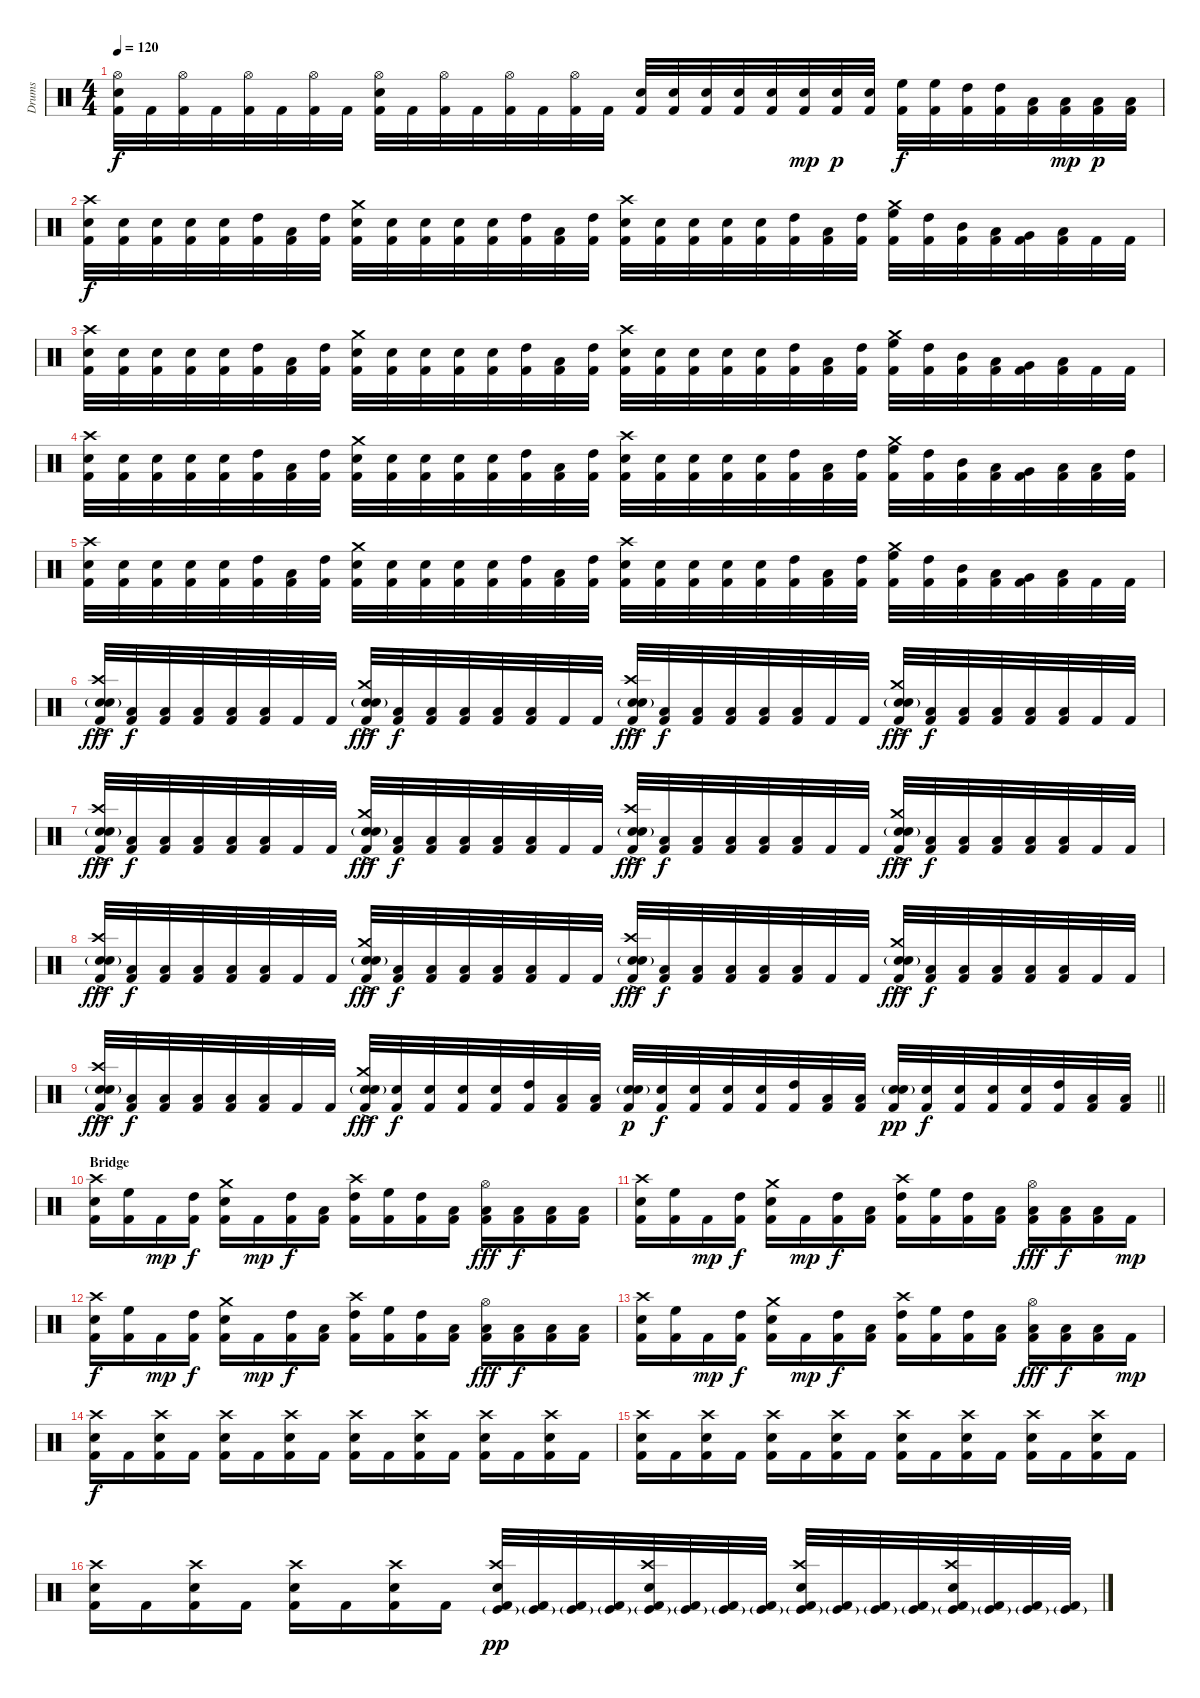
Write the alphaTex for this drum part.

\track ("Drums" "Drums") {instrument percussion}
\staff {score}
\articulation defaults
\ts (4 4)
\tempo 120
\clef neutral
\ks c
("Hi-Hat (open)" "Electric Snare (hit)" "Kick (hit) 2").32{dy f} "Kick (hit) 2".32 ("Hi-Hat (open)" "Kick (hit) 2").32 "Kick (hit) 2".32 ("Hi-Hat (open)" "Kick (hit) 2").32 "Kick (hit) 2".32 ("Hi-Hat (open)" "Kick (hit) 2").32 "Kick (hit) 2".32 ("Hi-Hat (open)" "Electric Snare (hit)" "Kick (hit) 2").32 "Kick (hit) 2".32 ("Hi-Hat (open)" "Kick (hit) 2").32 "Kick (hit) 2".32 ("Hi-Hat (open)" "Kick (hit) 2").32 "Kick (hit) 2".32 ("Hi-Hat (open)" "Kick (hit) 2").32 "Kick (hit) 2".32 ("Electric Snare (hit)" "Kick (hit) 2").32 ("Electric Snare (hit)" "Kick (hit) 2").32 ("Electric Snare (hit)" "Kick (hit) 2").32 ("Electric Snare (hit)" "Kick (hit) 2").32 ("Electric Snare (hit)" "Kick (hit) 2").32 ("Electric Snare (hit)" "Kick (hit) 2").32{dy mp} ("Electric Snare (hit)" "Kick (hit) 2").32{dy p} ("Electric Snare (hit)" "Kick (hit) 2").32 ("High Floor Tom (hit)" "Kick (hit) 2").32{dy f} ("High Floor Tom (hit)" "Kick (hit) 2").32 ("High Tom (hit)" "Kick (hit) 2").32 ("High Tom (hit)" "Kick (hit) 2").32 ("Low Tom (hit)" "Kick (hit) 2").32 ("Low Tom (hit)" "Kick (hit) 2").32{dy mp} ("Low Floor Tom (hit)" "Kick (hit) 2").32{dy p} ("Low Floor Tom (hit)" "Kick (hit) 2").32 |
("Crash high (hit)" "Electric Snare (hit)" "Kick (hit) 2").32{dy f} ("Electric Snare (hit)" "Kick (hit) 2").32 ("Electric Snare (hit)" "Kick (hit) 2").32 ("Electric Snare (hit)" "Kick (hit) 2").32 ("Electric Snare (hit)" "Kick (hit) 2").32 ("High Tom (hit)" "Kick (hit) 2").32 ("Low Tom (hit)" "Kick (hit) 2").32 ("High Tom (hit)" "Kick (hit) 2").32 ("Crash medium (hit)" "Electric Snare (hit)" "Kick (hit) 2").32 ("Electric Snare (hit)" "Kick (hit) 2").32 ("Electric Snare (hit)" "Kick (hit) 2").32 ("Electric Snare (hit)" "Kick (hit) 2").32 ("Electric Snare (hit)" "Kick (hit) 2").32 ("High Tom (hit)" "Kick (hit) 2").32 ("Low Tom (hit)" "Kick (hit) 2").32 ("High Tom (hit)" "Kick (hit) 2").32 ("Crash high (hit)" "Electric Snare (hit)" "Kick (hit) 2").32 ("Electric Snare (hit)" "Kick (hit) 2").32 ("Electric Snare (hit)" "Kick (hit) 2").32 ("Electric Snare (hit)" "Kick (hit) 2").32 ("Electric Snare (hit)" "Kick (hit) 2").32 ("High Tom (hit)" "Kick (hit) 2").32 ("Low Tom (hit)" "Kick (hit) 2").32 ("High Tom (hit)" "Kick (hit) 2").32 ("Crash medium (hit)" "High Floor Tom (hit)" "Kick (hit) 2").32 ("High Tom (hit)" "Kick (hit) 2").32 ("Mid Tom (hit)" "Kick (hit) 2").32 ("Low Tom (hit)" "Kick (hit) 2").32 ("Very Low Tom (hit)" "Kick (hit) 2").32 ("Low Floor Tom (hit)" "Kick (hit) 2").32 "Kick (hit) 2".32 "Kick (hit) 2".32 |
("Crash high (hit)" "Electric Snare (hit)" "Kick (hit) 2").32 ("Electric Snare (hit)" "Kick (hit) 2").32 ("Electric Snare (hit)" "Kick (hit) 2").32 ("Electric Snare (hit)" "Kick (hit) 2").32 ("Electric Snare (hit)" "Kick (hit) 2").32 ("High Tom (hit)" "Kick (hit) 2").32 ("Low Tom (hit)" "Kick (hit) 2").32 ("High Tom (hit)" "Kick (hit) 2").32 ("Crash medium (hit)" "Electric Snare (hit)" "Kick (hit) 2").32 ("Electric Snare (hit)" "Kick (hit) 2").32 ("Electric Snare (hit)" "Kick (hit) 2").32 ("Electric Snare (hit)" "Kick (hit) 2").32 ("Electric Snare (hit)" "Kick (hit) 2").32 ("High Tom (hit)" "Kick (hit) 2").32 ("Low Tom (hit)" "Kick (hit) 2").32 ("High Tom (hit)" "Kick (hit) 2").32 ("Crash high (hit)" "Electric Snare (hit)" "Kick (hit) 2").32 ("Electric Snare (hit)" "Kick (hit) 2").32 ("Electric Snare (hit)" "Kick (hit) 2").32 ("Electric Snare (hit)" "Kick (hit) 2").32 ("Electric Snare (hit)" "Kick (hit) 2").32 ("High Tom (hit)" "Kick (hit) 2").32 ("Low Tom (hit)" "Kick (hit) 2").32 ("High Tom (hit)" "Kick (hit) 2").32 ("Crash medium (hit)" "High Floor Tom (hit)" "Kick (hit) 2").32 ("High Tom (hit)" "Kick (hit) 2").32 ("Mid Tom (hit)" "Kick (hit) 2").32 ("Low Tom (hit)" "Kick (hit) 2").32 ("Very Low Tom (hit)" "Kick (hit) 2").32 ("Low Floor Tom (hit)" "Kick (hit) 2").32 "Kick (hit) 2".32 "Kick (hit) 2".32 |
("Crash high (hit)" "Electric Snare (hit)" "Kick (hit) 2").32 ("Electric Snare (hit)" "Kick (hit) 2").32 ("Electric Snare (hit)" "Kick (hit) 2").32 ("Electric Snare (hit)" "Kick (hit) 2").32 ("Electric Snare (hit)" "Kick (hit) 2").32 ("High Tom (hit)" "Kick (hit) 2").32 ("Low Tom (hit)" "Kick (hit) 2").32 ("High Tom (hit)" "Kick (hit) 2").32 ("Crash medium (hit)" "Electric Snare (hit)" "Kick (hit) 2").32 ("Electric Snare (hit)" "Kick (hit) 2").32 ("Electric Snare (hit)" "Kick (hit) 2").32 ("Electric Snare (hit)" "Kick (hit) 2").32 ("Electric Snare (hit)" "Kick (hit) 2").32 ("High Tom (hit)" "Kick (hit) 2").32 ("Low Tom (hit)" "Kick (hit) 2").32 ("High Tom (hit)" "Kick (hit) 2").32 ("Crash high (hit)" "Electric Snare (hit)" "Kick (hit) 2").32 ("Electric Snare (hit)" "Kick (hit) 2").32 ("Electric Snare (hit)" "Kick (hit) 2").32 ("Electric Snare (hit)" "Kick (hit) 2").32 ("Electric Snare (hit)" "Kick (hit) 2").32 ("High Tom (hit)" "Kick (hit) 2").32 ("Low Tom (hit)" "Kick (hit) 2").32 ("High Tom (hit)" "Kick (hit) 2").32 ("Crash medium (hit)" "High Floor Tom (hit)" "Kick (hit) 2").32 ("High Tom (hit)" "Kick (hit) 2").32 ("Mid Tom (hit)" "Kick (hit) 2").32 ("Low Tom (hit)" "Kick (hit) 2").32 ("Very Low Tom (hit)" "Kick (hit) 2").32 ("Low Floor Tom (hit)" "Kick (hit) 2").32 ("Low Tom (hit)" "Kick (hit) 2").32 ("High Tom (hit)" "Kick (hit) 2").32 |
("Crash high (hit)" "Electric Snare (hit)" "Kick (hit) 2").32 ("Electric Snare (hit)" "Kick (hit) 2").32 ("Electric Snare (hit)" "Kick (hit) 2").32 ("Electric Snare (hit)" "Kick (hit) 2").32 ("Electric Snare (hit)" "Kick (hit) 2").32 ("High Tom (hit)" "Kick (hit) 2").32 ("Low Tom (hit)" "Kick (hit) 2").32 ("High Tom (hit)" "Kick (hit) 2").32 ("Crash medium (hit)" "Electric Snare (hit)" "Kick (hit) 2").32 ("Electric Snare (hit)" "Kick (hit) 2").32 ("Electric Snare (hit)" "Kick (hit) 2").32 ("Electric Snare (hit)" "Kick (hit) 2").32 ("Electric Snare (hit)" "Kick (hit) 2").32 ("High Tom (hit)" "Kick (hit) 2").32 ("Low Tom (hit)" "Kick (hit) 2").32 ("High Tom (hit)" "Kick (hit) 2").32 ("Crash high (hit)" "Electric Snare (hit)" "Kick (hit) 2").32 ("Electric Snare (hit)" "Kick (hit) 2").32 ("Electric Snare (hit)" "Kick (hit) 2").32 ("Electric Snare (hit)" "Kick (hit) 2").32 ("Electric Snare (hit)" "Kick (hit) 2").32 ("High Tom (hit)" "Kick (hit) 2").32 ("Low Tom (hit)" "Kick (hit) 2").32 ("High Tom (hit)" "Kick (hit) 2").32 ("Crash medium (hit)" "High Floor Tom (hit)" "Kick (hit) 2").32 ("High Tom (hit)" "Kick (hit) 2").32 ("Mid Tom (hit)" "Kick (hit) 2").32 ("Low Tom (hit)" "Kick (hit) 2").32 ("Very Low Tom (hit)" "Kick (hit) 2").32 ("Low Floor Tom (hit)" "Kick (hit) 2").32 "Kick (hit) 2".32 "Kick (hit) 2".32 |
("Crash high (hit)" "Snare (hit) 2"{g} "Electric Snare (hit)"{ac} "Kick (hit) 2").32{dy fff} ("Low Floor Tom (hit)" "Kick (hit) 2").32{dy f} ("Low Tom (hit)" "Kick (hit) 2").32 ("Low Floor Tom (hit)" "Kick (hit) 2").32 ("Low Tom (hit)" "Kick (hit) 2").32 ("Low Floor Tom (hit)" "Kick (hit) 2").32 "Kick (hit) 2".32 "Kick (hit) 2".32 ("Crash medium (hit)" "Snare (hit) 2"{g} "Electric Snare (hit)"{ac} "Kick (hit) 2").32{dy fff} ("Low Floor Tom (hit)" "Kick (hit) 2").32{dy f} ("Low Tom (hit)" "Kick (hit) 2").32 ("Low Floor Tom (hit)" "Kick (hit) 2").32 ("Low Tom (hit)" "Kick (hit) 2").32 ("Low Floor Tom (hit)" "Kick (hit) 2").32 "Kick (hit) 2".32 "Kick (hit) 2".32 ("Crash high (hit)" "Snare (hit) 2"{g} "Electric Snare (hit)"{ac} "Kick (hit) 2").32{dy fff} ("Low Floor Tom (hit)" "Kick (hit) 2").32{dy f} ("Low Tom (hit)" "Kick (hit) 2").32 ("Low Floor Tom (hit)" "Kick (hit) 2").32 ("Low Tom (hit)" "Kick (hit) 2").32 ("Low Floor Tom (hit)" "Kick (hit) 2").32 "Kick (hit) 2".32 "Kick (hit) 2".32 ("Crash medium (hit)" "Snare (hit) 2"{g} "Electric Snare (hit)"{ac} "Kick (hit) 2").32{dy fff} ("Low Floor Tom (hit)" "Kick (hit) 2").32{dy f} ("Low Tom (hit)" "Kick (hit) 2").32 ("Low Floor Tom (hit)" "Kick (hit) 2").32 ("Low Tom (hit)" "Kick (hit) 2").32 ("Low Floor Tom (hit)" "Kick (hit) 2").32 "Kick (hit) 2".32 "Kick (hit) 2".32 |
("Crash high (hit)" "Snare (hit) 2"{g} "Electric Snare (hit)"{ac} "Kick (hit) 2").32{dy fff} ("Low Floor Tom (hit)" "Kick (hit) 2").32{dy f} ("Low Tom (hit)" "Kick (hit) 2").32 ("Low Floor Tom (hit)" "Kick (hit) 2").32 ("Low Tom (hit)" "Kick (hit) 2").32 ("Low Floor Tom (hit)" "Kick (hit) 2").32 "Kick (hit) 2".32 "Kick (hit) 2".32 ("Crash medium (hit)" "Snare (hit) 2"{g} "Electric Snare (hit)"{ac} "Kick (hit) 2").32{dy fff} ("Low Floor Tom (hit)" "Kick (hit) 2").32{dy f} ("Low Tom (hit)" "Kick (hit) 2").32 ("Low Floor Tom (hit)" "Kick (hit) 2").32 ("Low Tom (hit)" "Kick (hit) 2").32 ("Low Floor Tom (hit)" "Kick (hit) 2").32 "Kick (hit) 2".32 "Kick (hit) 2".32 ("Crash high (hit)" "Snare (hit) 2"{g} "Electric Snare (hit)"{ac} "Kick (hit) 2").32{dy fff} ("Low Floor Tom (hit)" "Kick (hit) 2").32{dy f} ("Low Tom (hit)" "Kick (hit) 2").32 ("Low Floor Tom (hit)" "Kick (hit) 2").32 ("Low Tom (hit)" "Kick (hit) 2").32 ("Low Floor Tom (hit)" "Kick (hit) 2").32 "Kick (hit) 2".32 "Kick (hit) 2".32 ("Crash medium (hit)" "Snare (hit) 2"{g} "Electric Snare (hit)"{ac} "Kick (hit) 2").32{dy fff} ("Low Floor Tom (hit)" "Kick (hit) 2").32{dy f} ("Low Tom (hit)" "Kick (hit) 2").32 ("Low Floor Tom (hit)" "Kick (hit) 2").32 ("Low Tom (hit)" "Kick (hit) 2").32 ("Low Floor Tom (hit)" "Kick (hit) 2").32 "Kick (hit) 2".32 "Kick (hit) 2".32 |
("Crash high (hit)" "Snare (hit) 2"{g} "Electric Snare (hit)"{ac} "Kick (hit) 2").32{dy fff} ("Low Floor Tom (hit)" "Kick (hit) 2").32{dy f} ("Low Tom (hit)" "Kick (hit) 2").32 ("Low Floor Tom (hit)" "Kick (hit) 2").32 ("Low Tom (hit)" "Kick (hit) 2").32 ("Low Floor Tom (hit)" "Kick (hit) 2").32 "Kick (hit) 2".32 "Kick (hit) 2".32 ("Crash medium (hit)" "Snare (hit) 2"{g} "Electric Snare (hit)"{ac} "Kick (hit) 2").32{dy fff} ("Low Floor Tom (hit)" "Kick (hit) 2").32{dy f} ("Low Tom (hit)" "Kick (hit) 2").32 ("Low Floor Tom (hit)" "Kick (hit) 2").32 ("Low Tom (hit)" "Kick (hit) 2").32 ("Low Floor Tom (hit)" "Kick (hit) 2").32 "Kick (hit) 2".32 "Kick (hit) 2".32 ("Crash high (hit)" "Snare (hit) 2"{g} "Electric Snare (hit)"{ac} "Kick (hit) 2").32{dy fff} ("Low Floor Tom (hit)" "Kick (hit) 2").32{dy f} ("Low Tom (hit)" "Kick (hit) 2").32 ("Low Floor Tom (hit)" "Kick (hit) 2").32 ("Low Tom (hit)" "Kick (hit) 2").32 ("Low Floor Tom (hit)" "Kick (hit) 2").32 "Kick (hit) 2".32 "Kick (hit) 2".32 ("Crash medium (hit)" "Snare (hit) 2"{g} "Electric Snare (hit)"{ac} "Kick (hit) 2").32{dy fff} ("Low Floor Tom (hit)" "Kick (hit) 2").32{dy f} ("Low Tom (hit)" "Kick (hit) 2").32 ("Low Floor Tom (hit)" "Kick (hit) 2").32 ("Low Tom (hit)" "Kick (hit) 2").32 ("Low Floor Tom (hit)" "Kick (hit) 2").32 "Kick (hit) 2".32 "Kick (hit) 2".32 |
\barLineRight lightlight
("Crash high (hit)" "Snare (hit) 2"{g} "Electric Snare (hit)"{ac} "Kick (hit) 2").32{dy fff} ("Low Floor Tom (hit)" "Kick (hit) 2").32{dy f} ("Low Tom (hit)" "Kick (hit) 2").32 ("Low Floor Tom (hit)" "Kick (hit) 2").32 ("Low Tom (hit)" "Kick (hit) 2").32 ("Low Floor Tom (hit)" "Kick (hit) 2").32 "Kick (hit) 2".32 "Kick (hit) 2".32 ("Crash medium (hit)" "Snare (hit) 2"{g} "Electric Snare (hit)"{ac} "Kick (hit) 2").32{dy fff} ("Electric Snare (hit)" "Kick (hit) 2").32{dy f} ("Electric Snare (hit)" "Kick (hit) 2").32 ("Electric Snare (hit)" "Kick (hit) 2").32 ("Electric Snare (hit)" "Kick (hit) 2").32 ("High Tom (hit)" "Kick (hit) 2").32 ("Low Tom (hit)" "Kick (hit) 2").32 ("Low Floor Tom (hit)" "Kick (hit) 2").32 ("Snare (hit) 2"{g} "Electric Snare (hit)" "Kick (hit) 2").32{dy p} ("Electric Snare (hit)" "Kick (hit) 2").32{dy f} ("Electric Snare (hit)" "Kick (hit) 2").32 ("Electric Snare (hit)" "Kick (hit) 2").32 ("Electric Snare (hit)" "Kick (hit) 2").32 ("High Tom (hit)" "Kick (hit) 2").32 ("Low Tom (hit)" "Kick (hit) 2").32 ("Low Floor Tom (hit)" "Kick (hit) 2").32 ("Snare (hit) 2"{g} "Electric Snare (hit)" "Kick (hit) 2").32{dy pp} ("Electric Snare (hit)" "Kick (hit) 2").32{dy f} ("Electric Snare (hit)" "Kick (hit) 2").32 ("Electric Snare (hit)" "Kick (hit) 2").32 ("Electric Snare (hit)" "Kick (hit) 2").32 ("High Tom (hit)" "Kick (hit) 2").32 ("Low Tom (hit)" "Kick (hit) 2").32 ("Low Floor Tom (hit)" "Kick (hit) 2").32 |
\section ("" "Bridge")
("Crash high (hit)" "Electric Snare (hit)" "Kick (hit) 2").16 ("High Floor Tom (hit)" "Kick (hit) 2").16 "Kick (hit) 2".16{dy mp} ("High Tom (hit)" "Kick (hit) 2").16{dy f} ("Crash medium (hit)" "Electric Snare (hit)" "Kick (hit) 2").16 "Kick (hit) 2".16{dy mp} ("High Tom (hit)" "Kick (hit) 2").16{dy f} ("Low Tom (hit)" "Kick (hit) 2").16 ("Crash high (hit)" "High Tom (hit)" "Kick (hit) 2").16 ("High Floor Tom (hit)" "Kick (hit) 2").16 ("High Tom (hit)" "Kick (hit) 2").16 ("Low Tom (hit)" "Kick (hit) 2").16 ("Hi-Hat (open)" "Low Floor Tom (hit)" "Kick (hit) 2").16{dy fff} ("Low Tom (hit)" "Kick (hit) 2").16{dy f} ("Low Floor Tom (hit)" "Kick (hit) 2").16 ("Low Tom (hit)" "Kick (hit) 2").16 |
("Crash high (hit)" "Electric Snare (hit)" "Kick (hit) 2").16 ("High Floor Tom (hit)" "Kick (hit) 2").16 "Kick (hit) 2".16{dy mp} ("High Tom (hit)" "Kick (hit) 2").16{dy f} ("Crash medium (hit)" "Electric Snare (hit)" "Kick (hit) 2").16 "Kick (hit) 2".16{dy mp} ("High Tom (hit)" "Kick (hit) 2").16{dy f} ("Low Tom (hit)" "Kick (hit) 2").16 ("Crash high (hit)" "High Tom (hit)" "Kick (hit) 2").16 ("High Floor Tom (hit)" "Kick (hit) 2").16 ("High Tom (hit)" "Kick (hit) 2").16 ("Low Tom (hit)" "Kick (hit) 2").16 ("Hi-Hat (open)" "Low Floor Tom (hit)" "Kick (hit) 2").16{dy fff} ("Low Tom (hit)" "Kick (hit) 2").16{dy f} ("Low Floor Tom (hit)" "Kick (hit) 2").16 "Kick (hit) 2".16{dy mp} |
("Crash high (hit)" "Electric Snare (hit)" "Kick (hit) 2").16{dy f} ("High Floor Tom (hit)" "Kick (hit) 2").16 "Kick (hit) 2".16{dy mp} ("High Tom (hit)" "Kick (hit) 2").16{dy f} ("Crash medium (hit)" "Electric Snare (hit)" "Kick (hit) 2").16 "Kick (hit) 2".16{dy mp} ("High Tom (hit)" "Kick (hit) 2").16{dy f} ("Low Tom (hit)" "Kick (hit) 2").16 ("Crash high (hit)" "High Tom (hit)" "Kick (hit) 2").16 ("High Floor Tom (hit)" "Kick (hit) 2").16 ("High Tom (hit)" "Kick (hit) 2").16 ("Low Tom (hit)" "Kick (hit) 2").16 ("Hi-Hat (open)" "Low Floor Tom (hit)" "Kick (hit) 2").16{dy fff} ("Low Tom (hit)" "Kick (hit) 2").16{dy f} ("Low Floor Tom (hit)" "Kick (hit) 2").16 ("Low Tom (hit)" "Kick (hit) 2").16 |
("Crash high (hit)" "Electric Snare (hit)" "Kick (hit) 2").16 ("High Floor Tom (hit)" "Kick (hit) 2").16 "Kick (hit) 2".16{dy mp} ("High Tom (hit)" "Kick (hit) 2").16{dy f} ("Crash medium (hit)" "Electric Snare (hit)" "Kick (hit) 2").16 "Kick (hit) 2".16{dy mp} ("High Tom (hit)" "Kick (hit) 2").16{dy f} ("Low Tom (hit)" "Kick (hit) 2").16 ("Crash high (hit)" "High Tom (hit)" "Kick (hit) 2").16 ("High Floor Tom (hit)" "Kick (hit) 2").16 ("High Tom (hit)" "Kick (hit) 2").16 ("Low Tom (hit)" "Kick (hit) 2").16 ("Hi-Hat (open)" "Low Floor Tom (hit)" "Kick (hit) 2").16{dy fff} ("Low Tom (hit)" "Kick (hit) 2").16{dy f} ("Low Floor Tom (hit)" "Kick (hit) 2").16 "Kick (hit) 2".16{dy mp} |
("Crash high (hit)" "Electric Snare (hit)" "Kick (hit) 2").16{dy f} "Kick (hit) 2".16 ("Crash high (hit)" "Electric Snare (hit)" "Kick (hit) 2").16 "Kick (hit) 2".16 ("Crash high (hit)" "Electric Snare (hit)" "Kick (hit) 2").16 "Kick (hit) 2".16 ("Crash high (hit)" "Electric Snare (hit)" "Kick (hit) 2").16 "Kick (hit) 2".16 ("Crash high (hit)" "Electric Snare (hit)" "Kick (hit) 2").16 "Kick (hit) 2".16 ("Crash high (hit)" "Electric Snare (hit)" "Kick (hit) 2").16 "Kick (hit) 2".16 ("Crash high (hit)" "Electric Snare (hit)" "Kick (hit) 2").16 "Kick (hit) 2".16 ("Crash high (hit)" "Electric Snare (hit)" "Kick (hit) 2").16 "Kick (hit) 2".16 |
("Crash high (hit)" "Electric Snare (hit)" "Kick (hit) 2").16 "Kick (hit) 2".16 ("Crash high (hit)" "Electric Snare (hit)" "Kick (hit) 2").16 "Kick (hit) 2".16 ("Crash high (hit)" "Electric Snare (hit)" "Kick (hit) 2").16 "Kick (hit) 2".16 ("Crash high (hit)" "Electric Snare (hit)" "Kick (hit) 2").16 "Kick (hit) 2".16 ("Crash high (hit)" "Electric Snare (hit)" "Kick (hit) 2").16 "Kick (hit) 2".16 ("Crash high (hit)" "Electric Snare (hit)" "Kick (hit) 2").16 "Kick (hit) 2".16 ("Crash high (hit)" "Electric Snare (hit)" "Kick (hit) 2").16 "Kick (hit) 2".16 ("Crash high (hit)" "Electric Snare (hit)" "Kick (hit) 2").16 "Kick (hit) 2".16 |
("Crash high (hit)" "Electric Snare (hit)" "Kick (hit) 2").16 "Kick (hit) 2".16 ("Crash high (hit)" "Electric Snare (hit)" "Kick (hit) 2").16 "Kick (hit) 2".16 ("Crash high (hit)" "Electric Snare (hit)" "Kick (hit) 2").16 "Kick (hit) 2".16 ("Crash high (hit)" "Electric Snare (hit)" "Kick (hit) 2").16 "Kick (hit) 2".16 ("Crash high (hit)" "Kick (hit)"{g} "Electric Snare (hit)" "Kick (hit) 2").32{dy pp} ("Kick (hit)"{g} "Kick (hit) 2").32 ("Kick (hit)"{g} "Kick (hit) 2").32 ("Kick (hit)"{g} "Kick (hit) 2").32 ("Crash high (hit)" "Kick (hit)"{g} "Electric Snare (hit)" "Kick (hit) 2").32 ("Kick (hit)"{g} "Kick (hit) 2").32 ("Kick (hit)"{g} "Kick (hit) 2").32 ("Kick (hit)"{g} "Kick (hit) 2").32 ("Crash high (hit)" "Kick (hit)"{g} "Electric Snare (hit)" "Kick (hit) 2").32 ("Kick (hit)"{g} "Kick (hit) 2").32 ("Kick (hit)"{g} "Kick (hit) 2").32 ("Kick (hit)"{g} "Kick (hit) 2").32 ("Crash high (hit)" "Kick (hit)"{g} "Electric Snare (hit)" "Kick (hit) 2").32 ("Kick (hit)"{g} "Kick (hit) 2").32 ("Kick (hit)"{g} "Kick (hit) 2").32 ("Kick (hit)"{g} "Kick (hit) 2").32
